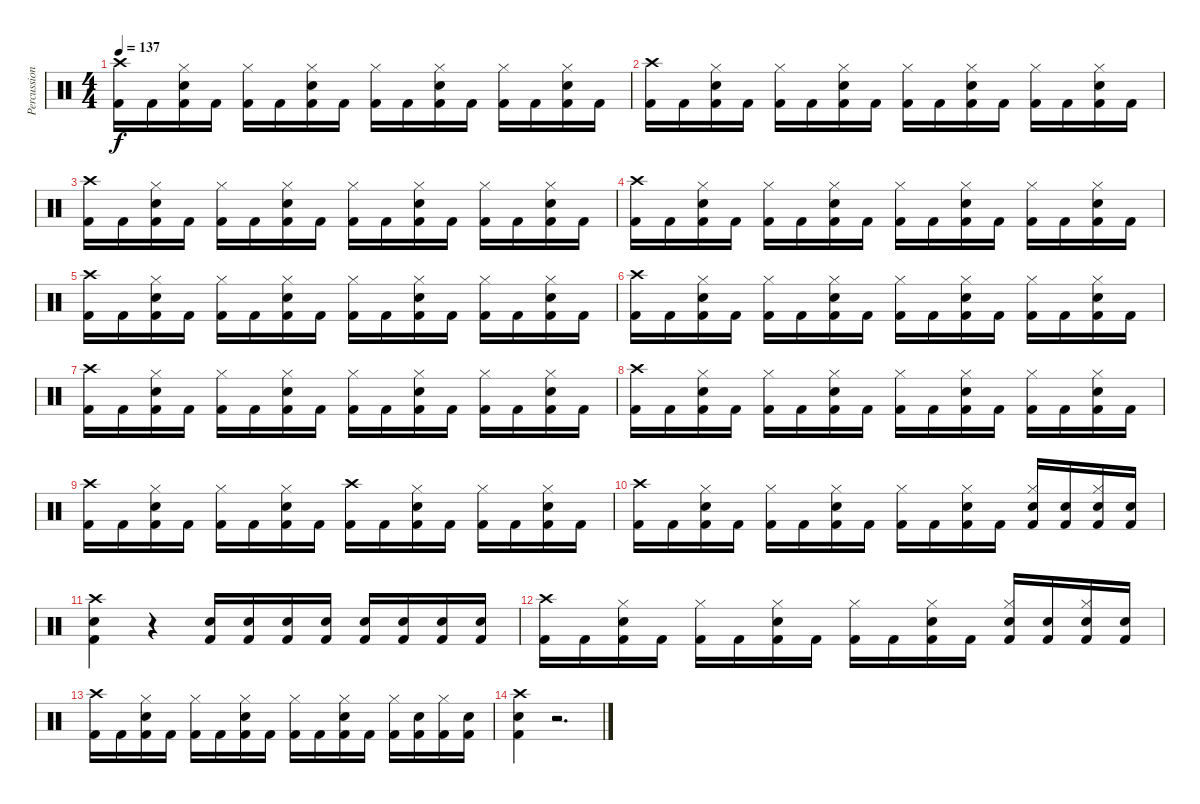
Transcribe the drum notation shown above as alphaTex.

\track ("Percussion" "Percussion") {instrument percussion}
\staff {score}
\articulation defaults
\ts (4 4)
\tempo 137
\clef neutral
\ks c
("Crash high (hit)" "Kick (hit) 2").16{dy f} "Kick (hit) 2".16 ("Hi-Hat (closed)" "Snare (hit) 2" "Kick (hit) 2").16 "Kick (hit) 2".16 ("Hi-Hat (closed)" "Kick (hit) 2").16 "Kick (hit) 2".16 ("Hi-Hat (closed)" "Snare (hit) 2" "Kick (hit) 2").16 "Kick (hit) 2".16 ("Hi-Hat (closed)" "Kick (hit) 2").16 "Kick (hit) 2".16 ("Hi-Hat (closed)" "Snare (hit) 2" "Kick (hit) 2").16 "Kick (hit) 2".16 ("Hi-Hat (closed)" "Kick (hit) 2").16 "Kick (hit) 2".16 ("Hi-Hat (closed)" "Snare (hit) 2" "Kick (hit) 2").16 "Kick (hit) 2".16 |
("Crash high (hit)" "Kick (hit) 2").16 "Kick (hit) 2".16 ("Hi-Hat (closed)" "Snare (hit) 2" "Kick (hit) 2").16 "Kick (hit) 2".16 ("Hi-Hat (closed)" "Kick (hit) 2").16 "Kick (hit) 2".16 ("Hi-Hat (closed)" "Snare (hit) 2" "Kick (hit) 2").16 "Kick (hit) 2".16 ("Hi-Hat (closed)" "Kick (hit) 2").16 "Kick (hit) 2".16 ("Hi-Hat (closed)" "Snare (hit) 2" "Kick (hit) 2").16 "Kick (hit) 2".16 ("Hi-Hat (closed)" "Kick (hit) 2").16 "Kick (hit) 2".16 ("Hi-Hat (closed)" "Snare (hit) 2" "Kick (hit) 2").16 "Kick (hit) 2".16 |
("Crash high (hit)" "Kick (hit) 2").16 "Kick (hit) 2".16 ("Hi-Hat (closed)" "Snare (hit) 2" "Kick (hit) 2").16 "Kick (hit) 2".16 ("Hi-Hat (closed)" "Kick (hit) 2").16 "Kick (hit) 2".16 ("Hi-Hat (closed)" "Snare (hit) 2" "Kick (hit) 2").16 "Kick (hit) 2".16 ("Hi-Hat (closed)" "Kick (hit) 2").16 "Kick (hit) 2".16 ("Hi-Hat (closed)" "Snare (hit) 2" "Kick (hit) 2").16 "Kick (hit) 2".16 ("Hi-Hat (closed)" "Kick (hit) 2").16 "Kick (hit) 2".16 ("Hi-Hat (closed)" "Snare (hit) 2" "Kick (hit) 2").16 "Kick (hit) 2".16 |
("Crash high (hit)" "Kick (hit) 2").16 "Kick (hit) 2".16 ("Hi-Hat (closed)" "Snare (hit) 2" "Kick (hit) 2").16 "Kick (hit) 2".16 ("Hi-Hat (closed)" "Kick (hit) 2").16 "Kick (hit) 2".16 ("Hi-Hat (closed)" "Snare (hit) 2" "Kick (hit) 2").16 "Kick (hit) 2".16 ("Hi-Hat (closed)" "Kick (hit) 2").16 "Kick (hit) 2".16 ("Hi-Hat (closed)" "Snare (hit) 2" "Kick (hit) 2").16 "Kick (hit) 2".16 ("Hi-Hat (closed)" "Kick (hit) 2").16 "Kick (hit) 2".16 ("Hi-Hat (closed)" "Snare (hit) 2" "Kick (hit) 2").16 "Kick (hit) 2".16 |
("Crash high (hit)" "Kick (hit) 2").16 "Kick (hit) 2".16 ("Hi-Hat (closed)" "Snare (hit) 2" "Kick (hit) 2").16 "Kick (hit) 2".16 ("Hi-Hat (closed)" "Kick (hit) 2").16 "Kick (hit) 2".16 ("Hi-Hat (closed)" "Snare (hit) 2" "Kick (hit) 2").16 "Kick (hit) 2".16 ("Hi-Hat (closed)" "Kick (hit) 2").16 "Kick (hit) 2".16 ("Hi-Hat (closed)" "Snare (hit) 2" "Kick (hit) 2").16 "Kick (hit) 2".16 ("Hi-Hat (closed)" "Kick (hit) 2").16 "Kick (hit) 2".16 ("Hi-Hat (closed)" "Snare (hit) 2" "Kick (hit) 2").16 "Kick (hit) 2".16 |
("Crash high (hit)" "Kick (hit) 2").16 "Kick (hit) 2".16 ("Hi-Hat (closed)" "Snare (hit) 2" "Kick (hit) 2").16 "Kick (hit) 2".16 ("Hi-Hat (closed)" "Kick (hit) 2").16 "Kick (hit) 2".16 ("Hi-Hat (closed)" "Snare (hit) 2" "Kick (hit) 2").16 "Kick (hit) 2".16 ("Hi-Hat (closed)" "Kick (hit) 2").16 "Kick (hit) 2".16 ("Hi-Hat (closed)" "Snare (hit) 2" "Kick (hit) 2").16 "Kick (hit) 2".16 ("Hi-Hat (closed)" "Kick (hit) 2").16 "Kick (hit) 2".16 ("Hi-Hat (closed)" "Snare (hit) 2" "Kick (hit) 2").16 "Kick (hit) 2".16 |
("Crash high (hit)" "Kick (hit) 2").16 "Kick (hit) 2".16 ("Hi-Hat (closed)" "Snare (hit) 2" "Kick (hit) 2").16 "Kick (hit) 2".16 ("Hi-Hat (closed)" "Kick (hit) 2").16 "Kick (hit) 2".16 ("Hi-Hat (closed)" "Snare (hit) 2" "Kick (hit) 2").16 "Kick (hit) 2".16 ("Hi-Hat (closed)" "Kick (hit) 2").16 "Kick (hit) 2".16 ("Hi-Hat (closed)" "Snare (hit) 2" "Kick (hit) 2").16 "Kick (hit) 2".16 ("Hi-Hat (closed)" "Kick (hit) 2").16 "Kick (hit) 2".16 ("Hi-Hat (closed)" "Snare (hit) 2" "Kick (hit) 2").16 "Kick (hit) 2".16 |
("Crash high (hit)" "Kick (hit) 2").16 "Kick (hit) 2".16 ("Hi-Hat (closed)" "Snare (hit) 2" "Kick (hit) 2").16 "Kick (hit) 2".16 ("Hi-Hat (closed)" "Kick (hit) 2").16 "Kick (hit) 2".16 ("Hi-Hat (closed)" "Snare (hit) 2" "Kick (hit) 2").16 "Kick (hit) 2".16 ("Hi-Hat (closed)" "Kick (hit) 2").16 "Kick (hit) 2".16 ("Hi-Hat (closed)" "Snare (hit) 2" "Kick (hit) 2").16 "Kick (hit) 2".16 ("Hi-Hat (closed)" "Kick (hit) 2").16 "Kick (hit) 2".16 ("Hi-Hat (closed)" "Snare (hit) 2" "Kick (hit) 2").16 "Kick (hit) 2".16 |
("Crash high (hit)" "Kick (hit) 2").16 "Kick (hit) 2".16 ("Hi-Hat (closed)" "Snare (hit) 2" "Kick (hit) 2").16 "Kick (hit) 2".16 ("Hi-Hat (closed)" "Kick (hit) 2").16 "Kick (hit) 2".16 ("Hi-Hat (closed)" "Snare (hit) 2" "Kick (hit) 2").16 "Kick (hit) 2".16 ("Crash high (hit)" "Kick (hit) 2").16 "Kick (hit) 2".16 ("Hi-Hat (closed)" "Snare (hit) 2" "Kick (hit) 2").16 "Kick (hit) 2".16 ("Hi-Hat (closed)" "Kick (hit) 2").16 "Kick (hit) 2".16 ("Hi-Hat (closed)" "Snare (hit) 2" "Kick (hit) 2").16 "Kick (hit) 2".16 |
("Crash high (hit)" "Kick (hit) 2").16 "Kick (hit) 2".16 ("Hi-Hat (closed)" "Snare (hit) 2" "Kick (hit) 2").16 "Kick (hit) 2".16 ("Hi-Hat (closed)" "Kick (hit) 2").16 "Kick (hit) 2".16 ("Hi-Hat (closed)" "Snare (hit) 2" "Kick (hit) 2").16 "Kick (hit) 2".16 ("Hi-Hat (closed)" "Kick (hit) 2").16 "Kick (hit) 2".16 ("Hi-Hat (closed)" "Snare (hit) 2" "Kick (hit) 2").16 "Kick (hit) 2".16 ("Hi-Hat (closed)" "Snare (hit) 2" "Kick (hit) 2").16 ("Snare (hit) 2" "Kick (hit) 2").16 ("Hi-Hat (closed)" "Snare (hit) 2" "Kick (hit) 2").16 ("Snare (hit) 2" "Kick (hit) 2").16 |
("Crash high (hit)" "Snare (hit) 2" "Kick (hit) 2").4 r.4 ("Snare (hit) 2" "Kick (hit) 2").16 ("Snare (hit) 2" "Kick (hit) 2").16 ("Snare (hit) 2" "Kick (hit) 2").16 ("Snare (hit) 2" "Kick (hit) 2").16 ("Snare (hit) 2" "Kick (hit) 2").16 ("Snare (hit) 2" "Kick (hit) 2").16 ("Snare (hit) 2" "Kick (hit) 2").16 ("Snare (hit) 2" "Kick (hit) 2").16 |
("Crash high (hit)" "Kick (hit) 2").16 "Kick (hit) 2".16 ("Hi-Hat (closed)" "Snare (hit) 2" "Kick (hit) 2").16 "Kick (hit) 2".16 ("Hi-Hat (closed)" "Kick (hit) 2").16 "Kick (hit) 2".16 ("Hi-Hat (closed)" "Snare (hit) 2" "Kick (hit) 2").16 "Kick (hit) 2".16 ("Hi-Hat (closed)" "Kick (hit) 2").16 "Kick (hit) 2".16 ("Hi-Hat (closed)" "Snare (hit) 2" "Kick (hit) 2").16 "Kick (hit) 2".16 ("Hi-Hat (closed)" "Snare (hit) 2" "Kick (hit) 2").16 ("Snare (hit) 2" "Kick (hit) 2").16 ("Hi-Hat (closed)" "Snare (hit) 2" "Kick (hit) 2").16 ("Snare (hit) 2" "Kick (hit) 2").16 |
("Crash high (hit)" "Kick (hit) 2").16 "Kick (hit) 2".16 ("Hi-Hat (closed)" "Snare (hit) 2" "Kick (hit) 2").16 "Kick (hit) 2".16 ("Hi-Hat (closed)" "Kick (hit) 2").16 "Kick (hit) 2".16 ("Hi-Hat (closed)" "Snare (hit) 2" "Kick (hit) 2").16 "Kick (hit) 2".16 ("Hi-Hat (closed)" "Kick (hit) 2").16 "Kick (hit) 2".16 ("Hi-Hat (closed)" "Snare (hit) 2" "Kick (hit) 2").16 "Kick (hit) 2".16 ("Hi-Hat (closed)" "Kick (hit) 2").16 ("Snare (hit) 2" "Kick (hit) 2").16 ("Hi-Hat (closed)" "Kick (hit) 2").16 ("Snare (hit) 2" "Kick (hit) 2").16 |
("Crash high (hit)" "Snare (hit) 2" "Kick (hit) 2").4 r.2{d}
